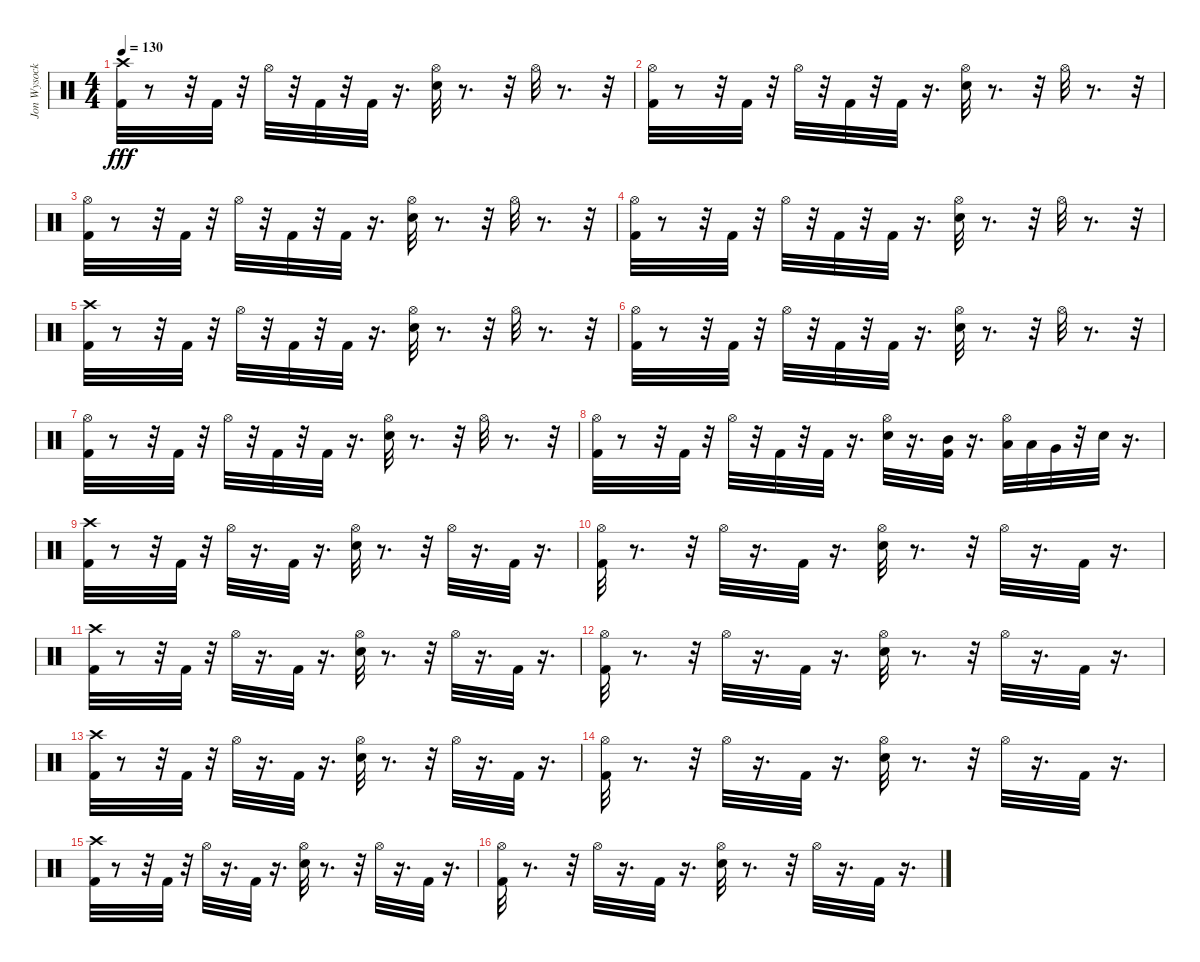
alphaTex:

\track ("Jon Wysocki - Drums" "Jon Wysock") {instrument percussion}
\staff {score}
\articulation defaults
\ts (4 4)
\tempo 130
\clef neutral
\ks c
("Crash high (hit)" "Kick (hit) 2").32{dy fff} r.8 r.32 "Kick (hit) 2".32 r.32 "Hi-Hat (open)".32 r.32 "Kick (hit) 2".32 r.32 "Kick (hit) 2".32 r.16{d} ("Hi-Hat (open)" "Electric Snare (hit)").32 r.8{d} r.32 "Hi-Hat (open)".32 r.8{d} r.32 |
("Hi-Hat (open)" "Kick (hit) 2").32 r.8 r.32 "Kick (hit) 2".32 r.32 "Hi-Hat (open)".32 r.32 "Kick (hit) 2".32 r.32 "Kick (hit) 2".32 r.16{d} ("Hi-Hat (open)" "Electric Snare (hit)").32 r.8{d} r.32 "Hi-Hat (open)".32 r.8{d} r.32 |
("Hi-Hat (open)" "Kick (hit) 2").32 r.8 r.32 "Kick (hit) 2".32 r.32 "Hi-Hat (open)".32 r.32 "Kick (hit) 2".32 r.32 "Kick (hit) 2".32 r.16{d} ("Hi-Hat (open)" "Electric Snare (hit)").32 r.8{d} r.32 "Hi-Hat (open)".32 r.8{d} r.32 |
("Hi-Hat (open)" "Kick (hit) 2").32 r.8 r.32 "Kick (hit) 2".32 r.32 "Hi-Hat (open)".32 r.32 "Kick (hit) 2".32 r.32 "Kick (hit) 2".32 r.16{d} ("Hi-Hat (open)" "Electric Snare (hit)").32 r.8{d} r.32 "Hi-Hat (open)".32 r.8{d} r.32 |
("Crash high (hit)" "Kick (hit) 2").32 r.8 r.32 "Kick (hit) 2".32 r.32 "Hi-Hat (open)".32 r.32 "Kick (hit) 2".32 r.32 "Kick (hit) 2".32 r.16{d} ("Hi-Hat (open)" "Electric Snare (hit)").32 r.8{d} r.32 "Hi-Hat (open)".32 r.8{d} r.32 |
("Hi-Hat (open)" "Kick (hit) 2").32 r.8 r.32 "Kick (hit) 2".32 r.32 "Hi-Hat (open)".32 r.32 "Kick (hit) 2".32 r.32 "Kick (hit) 2".32 r.16{d} ("Hi-Hat (open)" "Electric Snare (hit)").32 r.8{d} r.32 "Hi-Hat (open)".32 r.8{d} r.32 |
("Hi-Hat (open)" "Kick (hit) 2").32 r.8 r.32 "Kick (hit) 2".32 r.32 "Hi-Hat (open)".32 r.32 "Kick (hit) 2".32 r.32 "Kick (hit) 2".32 r.16{d} ("Hi-Hat (open)" "Electric Snare (hit)").32 r.8{d} r.32 "Hi-Hat (open)".32 r.8{d} r.32 |
("Kick (hit) 2" "Hi-Hat (open)").32 r.8 r.32 "Kick (hit) 2".32 r.32 "Hi-Hat (open)".32 r.32 "Kick (hit) 2".32 r.32 "Kick (hit) 2".32 r.16{d} ("Hi-Hat (open)" "Electric Snare (hit)").32 r.16{d} ("Mid Tom (hit)" "Kick (hit) 2").32 r.16{d} ("Hi-Hat (open)" "Low Tom (hit)").32 "Low Tom (hit)".32 "Very Low Tom (hit)".32 r.32 "Electric Snare (hit)".32 r.16{d} |
("Crash high (hit)" "Kick (hit) 2").32 r.8 r.32 "Kick (hit) 2".32 r.32 "Hi-Hat (open)".32 r.16{d} "Kick (hit) 2".32 r.16{d} ("Hi-Hat (open)" "Electric Snare (hit)").32 r.8{d} r.32 "Hi-Hat (open)".32 r.16{d} "Kick (hit) 2".32 r.16{d} |
("Hi-Hat (open)" "Kick (hit) 2").32 r.8{d} r.32 "Hi-Hat (open)".32 r.16{d} "Kick (hit) 2".32 r.16{d} ("Electric Snare (hit)" "Hi-Hat (open)").32 r.8{d} r.32 "Hi-Hat (open)".32 r.16{d} "Kick (hit) 2".32 r.16{d} |
("Crash high (hit)" "Kick (hit) 2").32 r.8 r.32 "Kick (hit) 2".32 r.32 "Hi-Hat (open)".32 r.16{d} "Kick (hit) 2".32 r.16{d} ("Hi-Hat (open)" "Electric Snare (hit)").32 r.8{d} r.32 "Hi-Hat (open)".32 r.16{d} "Kick (hit) 2".32 r.16{d} |
("Hi-Hat (open)" "Kick (hit) 2").32 r.8{d} r.32 "Hi-Hat (open)".32 r.16{d} "Kick (hit) 2".32 r.16{d} ("Electric Snare (hit)" "Hi-Hat (open)").32 r.8{d} r.32 "Hi-Hat (open)".32 r.16{d} "Kick (hit) 2".32 r.16{d} |
("Crash high (hit)" "Kick (hit) 2").32 r.8 r.32 "Kick (hit) 2".32 r.32 "Hi-Hat (open)".32 r.16{d} "Kick (hit) 2".32 r.16{d} ("Hi-Hat (open)" "Electric Snare (hit)").32 r.8{d} r.32 "Hi-Hat (open)".32 r.16{d} "Kick (hit) 2".32 r.16{d} |
("Hi-Hat (open)" "Kick (hit) 2").32 r.8{d} r.32 "Hi-Hat (open)".32 r.16{d} "Kick (hit) 2".32 r.16{d} ("Electric Snare (hit)" "Hi-Hat (open)").32 r.8{d} r.32 "Hi-Hat (open)".32 r.16{d} "Kick (hit) 2".32 r.16{d} |
("Crash high (hit)" "Kick (hit) 2").32 r.8 r.32 "Kick (hit) 2".32 r.32 "Hi-Hat (open)".32 r.16{d} "Kick (hit) 2".32 r.16{d} ("Hi-Hat (open)" "Electric Snare (hit)").32 r.8{d} r.32 "Hi-Hat (open)".32 r.16{d} "Kick (hit) 2".32 r.16{d} |
("Hi-Hat (open)" "Kick (hit) 2").32 r.8{d} r.32 "Hi-Hat (open)".32 r.16{d} "Kick (hit) 2".32 r.16{d} ("Electric Snare (hit)" "Hi-Hat (open)").32 r.8{d} r.32 "Hi-Hat (open)".32 r.16{d} "Kick (hit) 2".32 r.16{d}
